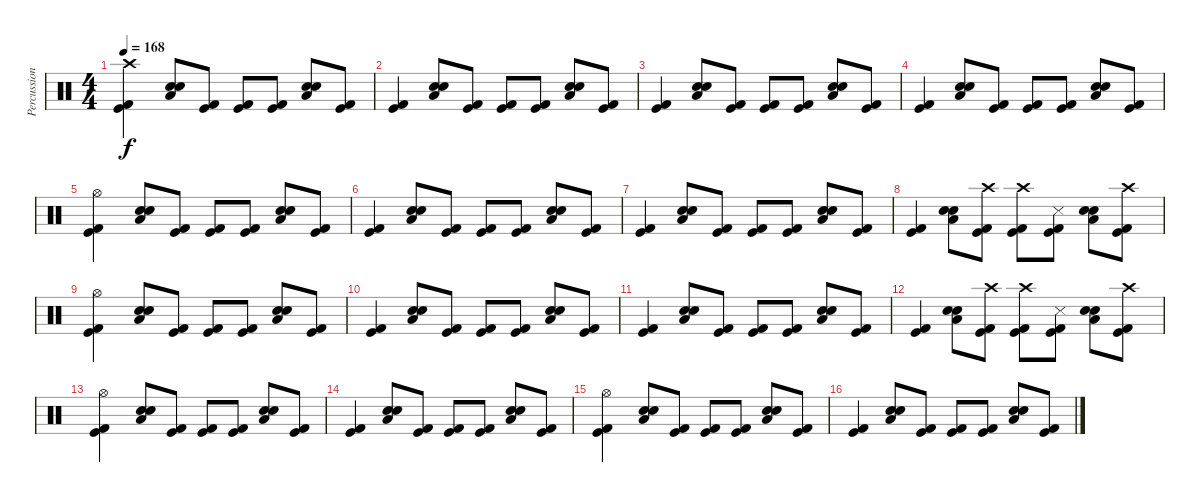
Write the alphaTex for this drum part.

\track ("Percussion" "Percussion") {instrument percussion}
\staff {score}
\articulation defaults
\ts (4 4)
\tempo 168
\clef neutral
\ks c
("Crash high (hit)" "Kick (hit)" "Kick (hit) 2").4{dy f} ("Electric Snare (hit)" "Low Floor Tom (hit)" "Snare (hit) 2").8 ("Kick (hit)" "Kick (hit) 2").8 ("Kick (hit)" "Kick (hit) 2").8 ("Kick (hit)" "Kick (hit) 2").8 ("Electric Snare (hit)" "Low Floor Tom (hit)" "Snare (hit) 2").8 ("Kick (hit)" "Kick (hit) 2").8 |
("Kick (hit)" "Kick (hit) 2").4 ("Electric Snare (hit)" "Low Floor Tom (hit)" "Snare (hit) 2").8 ("Kick (hit)" "Kick (hit) 2").8 ("Kick (hit)" "Kick (hit) 2").8 ("Kick (hit)" "Kick (hit) 2").8 ("Electric Snare (hit)" "Low Floor Tom (hit)" "Snare (hit) 2").8 ("Kick (hit)" "Kick (hit) 2").8 |
("Kick (hit)" "Kick (hit) 2").4 ("Electric Snare (hit)" "Low Floor Tom (hit)" "Snare (hit) 2").8 ("Kick (hit)" "Kick (hit) 2").8 ("Kick (hit)" "Kick (hit) 2").8 ("Kick (hit)" "Kick (hit) 2").8 ("Electric Snare (hit)" "Low Floor Tom (hit)" "Snare (hit) 2").8 ("Kick (hit)" "Kick (hit) 2").8 |
("Kick (hit)" "Kick (hit) 2").4 ("Electric Snare (hit)" "Low Floor Tom (hit)" "Snare (hit) 2").8 ("Kick (hit)" "Kick (hit) 2").8 ("Kick (hit)" "Kick (hit) 2").8 ("Kick (hit)" "Kick (hit) 2").8 ("Electric Snare (hit)" "Low Floor Tom (hit)" "Snare (hit) 2").8 ("Kick (hit)" "Kick (hit) 2").8 |
("Hi-Hat (open)" "Kick (hit)" "Kick (hit) 2").4 ("Electric Snare (hit)" "Low Floor Tom (hit)" "Snare (hit) 2").8 ("Kick (hit)" "Kick (hit) 2").8 ("Kick (hit)" "Kick (hit) 2").8 ("Kick (hit)" "Kick (hit) 2").8 ("Electric Snare (hit)" "Low Floor Tom (hit)" "Snare (hit) 2").8 ("Kick (hit)" "Kick (hit) 2").8 |
("Kick (hit)" "Kick (hit) 2").4 ("Electric Snare (hit)" "Low Floor Tom (hit)" "Snare (hit) 2").8 ("Kick (hit)" "Kick (hit) 2").8 ("Kick (hit)" "Kick (hit) 2").8 ("Kick (hit)" "Kick (hit) 2").8 ("Electric Snare (hit)" "Low Floor Tom (hit)" "Snare (hit) 2").8 ("Kick (hit)" "Kick (hit) 2").8 |
("Kick (hit)" "Kick (hit) 2").4 ("Electric Snare (hit)" "Low Floor Tom (hit)" "Snare (hit) 2").8 ("Kick (hit)" "Kick (hit) 2").8 ("Kick (hit)" "Kick (hit) 2").8 ("Kick (hit)" "Kick (hit) 2").8 ("Electric Snare (hit)" "Low Floor Tom (hit)" "Snare (hit) 2").8 ("Kick (hit)" "Kick (hit) 2").8 |
("Kick (hit)" "Kick (hit) 2").4 ("Electric Snare (hit)" "Low Floor Tom (hit)" "Snare (hit) 2").8 ("Crash high (hit)" "Kick (hit)" "Kick (hit) 2").8 ("Crash high (hit)" "Kick (hit)" "Kick (hit) 2").8 ("Snare (side stick) 3" "Kick (hit)" "Kick (hit) 2").8 ("Electric Snare (hit)" "Low Floor Tom (hit)" "Snare (hit) 2").8 ("Crash high (hit)" "Kick (hit)" "Kick (hit) 2").8 |
("Hi-Hat (open)" "Kick (hit)" "Kick (hit) 2").4 ("Electric Snare (hit)" "Low Floor Tom (hit)" "Snare (hit) 2").8 ("Kick (hit)" "Kick (hit) 2").8 ("Kick (hit)" "Kick (hit) 2").8 ("Kick (hit)" "Kick (hit) 2").8 ("Electric Snare (hit)" "Low Floor Tom (hit)" "Snare (hit) 2").8 ("Kick (hit)" "Kick (hit) 2").8 |
("Kick (hit)" "Kick (hit) 2").4 ("Electric Snare (hit)" "Low Floor Tom (hit)" "Snare (hit) 2").8 ("Kick (hit)" "Kick (hit) 2").8 ("Kick (hit)" "Kick (hit) 2").8 ("Kick (hit)" "Kick (hit) 2").8 ("Electric Snare (hit)" "Low Floor Tom (hit)" "Snare (hit) 2").8 ("Kick (hit)" "Kick (hit) 2").8 |
("Kick (hit)" "Kick (hit) 2").4 ("Electric Snare (hit)" "Low Floor Tom (hit)" "Snare (hit) 2").8 ("Kick (hit)" "Kick (hit) 2").8 ("Kick (hit)" "Kick (hit) 2").8 ("Kick (hit)" "Kick (hit) 2").8 ("Electric Snare (hit)" "Low Floor Tom (hit)" "Snare (hit) 2").8 ("Kick (hit)" "Kick (hit) 2").8 |
("Kick (hit)" "Kick (hit) 2").4 ("Electric Snare (hit)" "Low Floor Tom (hit)" "Snare (hit) 2").8 ("Crash high (hit)" "Kick (hit)" "Kick (hit) 2").8 ("Crash high (hit)" "Kick (hit)" "Kick (hit) 2").8 ("Snare (side stick) 3" "Kick (hit)" "Kick (hit) 2").8 ("Electric Snare (hit)" "Low Floor Tom (hit)" "Snare (hit) 2").8 ("Crash high (hit)" "Kick (hit)" "Kick (hit) 2").8 |
("Hi-Hat (open)" "Kick (hit)" "Kick (hit) 2").4 ("Electric Snare (hit)" "Low Floor Tom (hit)" "Snare (hit) 2").8 ("Kick (hit)" "Kick (hit) 2").8 ("Kick (hit)" "Kick (hit) 2").8 ("Kick (hit)" "Kick (hit) 2").8 ("Electric Snare (hit)" "Low Floor Tom (hit)" "Snare (hit) 2").8 ("Kick (hit)" "Kick (hit) 2").8 |
("Kick (hit)" "Kick (hit) 2").4 ("Electric Snare (hit)" "Low Floor Tom (hit)" "Snare (hit) 2").8 ("Kick (hit)" "Kick (hit) 2").8 ("Kick (hit)" "Kick (hit) 2").8 ("Kick (hit)" "Kick (hit) 2").8 ("Electric Snare (hit)" "Low Floor Tom (hit)" "Snare (hit) 2").8 ("Kick (hit)" "Kick (hit) 2").8 |
("Hi-Hat (open)" "Kick (hit)" "Kick (hit) 2").4 ("Electric Snare (hit)" "Low Floor Tom (hit)" "Snare (hit) 2").8 ("Kick (hit)" "Kick (hit) 2").8 ("Kick (hit)" "Kick (hit) 2").8 ("Kick (hit)" "Kick (hit) 2").8 ("Electric Snare (hit)" "Low Floor Tom (hit)" "Snare (hit) 2").8 ("Kick (hit)" "Kick (hit) 2").8 |
("Kick (hit)" "Kick (hit) 2").4 ("Electric Snare (hit)" "Low Floor Tom (hit)" "Snare (hit) 2").8 ("Kick (hit)" "Kick (hit) 2").8 ("Kick (hit)" "Kick (hit) 2").8 ("Kick (hit)" "Kick (hit) 2").8 ("Electric Snare (hit)" "Low Floor Tom (hit)" "Snare (hit) 2").8 ("Kick (hit)" "Kick (hit) 2").8
